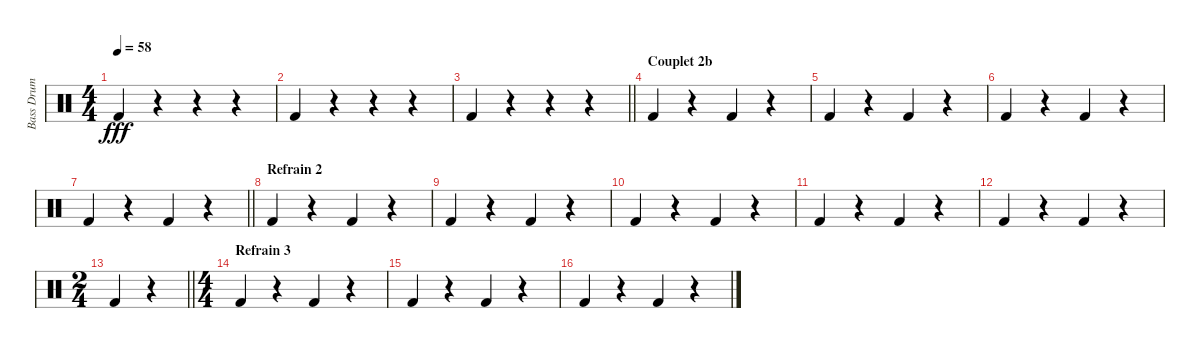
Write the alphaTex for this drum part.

\track ("Bass Drum" "Bass Drum") {instrument percussion}
\staff {score}
\articulation defaults
\ts (4 4)
\tempo 58
\clef neutral
\ks c "Kick (hit) 2".4{dy fff}
r.4 r.4 r.4 |
"Kick (hit) 2".4 r.4 r.4 r.4 |
\barLineRight lightlight "Kick (hit) 2".4
r.4 r.4 r.4 |
\section ("" "Couplet 2b")
"Kick (hit) 2".4 r.4 "Kick (hit) 2".4 r.4 |
"Kick (hit) 2".4 r.4 "Kick (hit) 2".4 r.4 |
"Kick (hit) 2".4 r.4 "Kick (hit) 2".4 r.4 |
\barLineRight lightlight "Kick (hit) 2".4
r.4 "Kick (hit) 2".4 r.4 |
\section ("" "Refrain 2")
"Kick (hit) 2".4 r.4 "Kick (hit) 2".4 r.4 |
"Kick (hit) 2".4 r.4 "Kick (hit) 2".4 r.4 |
"Kick (hit) 2".4 r.4 "Kick (hit) 2".4 r.4 |
"Kick (hit) 2".4 r.4 "Kick (hit) 2".4 r.4 |
"Kick (hit) 2".4 r.4 "Kick (hit) 2".4 r.4 |
\ts (2 4)
\barLineRight lightlight "Kick (hit) 2".4
r.4 |
\ts (4 4)
\section ("" "Refrain 3")
"Kick (hit) 2".4 r.4 "Kick (hit) 2".4 r.4 |
"Kick (hit) 2".4 r.4 "Kick (hit) 2".4 r.4 |
"Kick (hit) 2".4 r.4 "Kick (hit) 2".4 r.4
